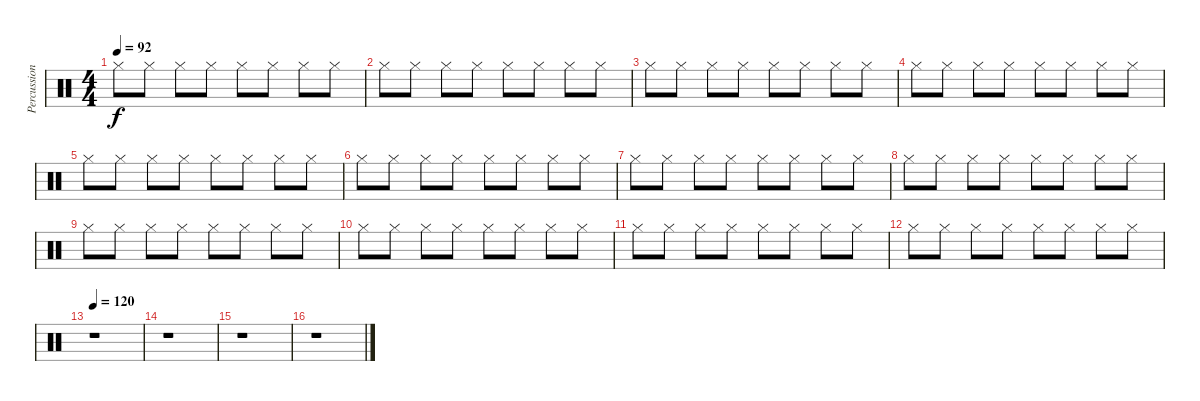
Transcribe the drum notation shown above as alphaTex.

\track ("Percussion" "Percussion") {instrument percussion}
\staff {score}
\articulation defaults
\ts (4 4)
\tempo 92
\clef neutral
\ks c "Hi-Hat (closed)".8{dy f} "Hi-Hat (closed)".8 "Hi-Hat (closed)".8 "Hi-Hat (closed)".8 "Hi-Hat (closed)".8 "Hi-Hat (closed)".8 "Hi-Hat (closed)".8 "Hi-Hat (closed)".8
|
"Hi-Hat (closed)".8 "Hi-Hat (closed)".8 "Hi-Hat (closed)".8 "Hi-Hat (closed)".8 "Hi-Hat (closed)".8 "Hi-Hat (closed)".8 "Hi-Hat (closed)".8 "Hi-Hat (closed)".8 |
"Hi-Hat (closed)".8 "Hi-Hat (closed)".8 "Hi-Hat (closed)".8 "Hi-Hat (closed)".8 "Hi-Hat (closed)".8 "Hi-Hat (closed)".8 "Hi-Hat (closed)".8 "Hi-Hat (closed)".8 |
"Hi-Hat (closed)".8 "Hi-Hat (closed)".8 "Hi-Hat (closed)".8 "Hi-Hat (closed)".8 "Hi-Hat (closed)".8 "Hi-Hat (closed)".8 "Hi-Hat (closed)".8 "Hi-Hat (closed)".8 |
"Hi-Hat (closed)".8{volume 12} "Hi-Hat (closed)".8 "Hi-Hat (closed)".8 "Hi-Hat (closed)".8 "Hi-Hat (closed)".8 "Hi-Hat (closed)".8 "Hi-Hat (closed)".8 "Hi-Hat (closed)".8 |
"Hi-Hat (closed)".8 "Hi-Hat (closed)".8 "Hi-Hat (closed)".8 "Hi-Hat (closed)".8 "Hi-Hat (closed)".8 "Hi-Hat (closed)".8 "Hi-Hat (closed)".8 "Hi-Hat (closed)".8 |
"Hi-Hat (closed)".8 "Hi-Hat (closed)".8 "Hi-Hat (closed)".8 "Hi-Hat (closed)".8 "Hi-Hat (closed)".8 "Hi-Hat (closed)".8 "Hi-Hat (closed)".8 "Hi-Hat (closed)".8 |
"Hi-Hat (closed)".8 "Hi-Hat (closed)".8 "Hi-Hat (closed)".8 "Hi-Hat (closed)".8 "Hi-Hat (closed)".8 "Hi-Hat (closed)".8 "Hi-Hat (closed)".8 "Hi-Hat (closed)".8 |
"Hi-Hat (closed)".8 "Hi-Hat (closed)".8 "Hi-Hat (closed)".8 "Hi-Hat (closed)".8 "Hi-Hat (closed)".8 "Hi-Hat (closed)".8 "Hi-Hat (closed)".8 "Hi-Hat (closed)".8 |
"Hi-Hat (closed)".8 "Hi-Hat (closed)".8 "Hi-Hat (closed)".8 "Hi-Hat (closed)".8 "Hi-Hat (closed)".8 "Hi-Hat (closed)".8 "Hi-Hat (closed)".8 "Hi-Hat (closed)".8 |
"Hi-Hat (closed)".8 "Hi-Hat (closed)".8 "Hi-Hat (closed)".8 "Hi-Hat (closed)".8 "Hi-Hat (closed)".8 "Hi-Hat (closed)".8 "Hi-Hat (closed)".8 "Hi-Hat (closed)".8 |
"Hi-Hat (closed)".8 "Hi-Hat (closed)".8 "Hi-Hat (closed)".8 "Hi-Hat (closed)".8 "Hi-Hat (closed)".8 "Hi-Hat (closed)".8 "Hi-Hat (closed)".8 "Hi-Hat (closed)".8 |
\tempo 120
r.1 |
r.1 |
r.1 |
r.1
